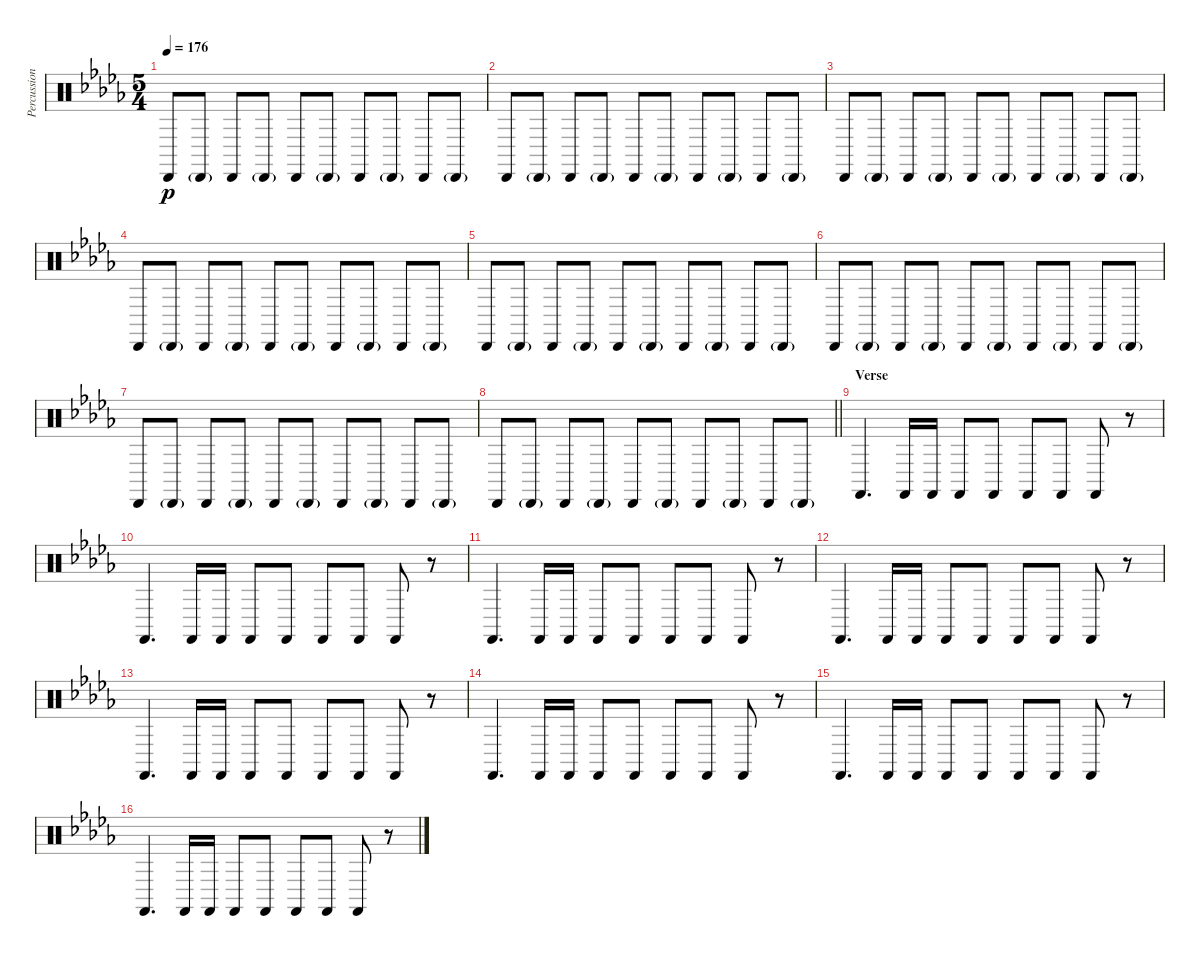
\track ("Percussion" "Percussion") {instrument percussion}
\staff {score}
\articulation defaults
\ts (5 4)
\tempo 176
\clef neutral
\ks db "Cabasa (hit)".8{dy p} "Cabasa (hit)"{g}.8 "Cabasa (hit)".8 "Cabasa (hit)"{g}.8 "Cabasa (hit)".8 "Cabasa (hit)"{g}.8 "Cabasa (hit)".8 "Cabasa (hit)"{g}.8 "Cabasa (hit)".8 "Cabasa (hit)"{g}.8
|
"Cabasa (hit)".8 "Cabasa (hit)"{g}.8 "Cabasa (hit)".8 "Cabasa (hit)"{g}.8 "Cabasa (hit)".8 "Cabasa (hit)"{g}.8 "Cabasa (hit)".8 "Cabasa (hit)"{g}.8 "Cabasa (hit)".8 "Cabasa (hit)"{g}.8 |
"Cabasa (hit)".8 "Cabasa (hit)"{g}.8 "Cabasa (hit)".8 "Cabasa (hit)"{g}.8 "Cabasa (hit)".8 "Cabasa (hit)"{g}.8 "Cabasa (hit)".8 "Cabasa (hit)"{g}.8 "Cabasa (hit)".8 "Cabasa (hit)"{g}.8 |
"Cabasa (hit)".8 "Cabasa (hit)"{g}.8 "Cabasa (hit)".8 "Cabasa (hit)"{g}.8 "Cabasa (hit)".8 "Cabasa (hit)"{g}.8 "Cabasa (hit)".8 "Cabasa (hit)"{g}.8 "Cabasa (hit)".8 "Cabasa (hit)"{g}.8 |
"Cabasa (hit)".8 "Cabasa (hit)"{g}.8 "Cabasa (hit)".8 "Cabasa (hit)"{g}.8 "Cabasa (hit)".8 "Cabasa (hit)"{g}.8 "Cabasa (hit)".8 "Cabasa (hit)"{g}.8 "Cabasa (hit)".8 "Cabasa (hit)"{g}.8 |
"Cabasa (hit)".8 "Cabasa (hit)"{g}.8 "Cabasa (hit)".8 "Cabasa (hit)"{g}.8 "Cabasa (hit)".8 "Cabasa (hit)"{g}.8 "Cabasa (hit)".8 "Cabasa (hit)"{g}.8 "Cabasa (hit)".8 "Cabasa (hit)"{g}.8 |
"Cabasa (hit)".8 "Cabasa (hit)"{g}.8 "Cabasa (hit)".8 "Cabasa (hit)"{g}.8 "Cabasa (hit)".8 "Cabasa (hit)"{g}.8 "Cabasa (hit)".8 "Cabasa (hit)"{g}.8 "Cabasa (hit)".8 "Cabasa (hit)"{g}.8 |
\barLineRight lightlight "Cabasa (hit)".8 "Cabasa (hit)"{g}.8 "Cabasa (hit)".8 "Cabasa (hit)"{g}.8 "Cabasa (hit)".8 "Cabasa (hit)"{g}.8 "Cabasa (hit)".8 "Cabasa (hit)"{g}.8 "Cabasa (hit)".8 "Cabasa (hit)"{g}.8
|
\section ("" "Verse")
"Castanets (hit)".4{d} "Castanets (hit)".16 "Castanets (hit)".16 "Castanets (hit)".8 "Castanets (hit)".8 "Castanets (hit)".8 "Castanets (hit)".8 "Castanets (hit)".8 r.8 |
"Castanets (hit)".4{d} "Castanets (hit)".16 "Castanets (hit)".16 "Castanets (hit)".8 "Castanets (hit)".8 "Castanets (hit)".8 "Castanets (hit)".8 "Castanets (hit)".8 r.8 |
"Castanets (hit)".4{d} "Castanets (hit)".16 "Castanets (hit)".16 "Castanets (hit)".8 "Castanets (hit)".8 "Castanets (hit)".8 "Castanets (hit)".8 "Castanets (hit)".8 r.8 |
"Castanets (hit)".4{d} "Castanets (hit)".16 "Castanets (hit)".16 "Castanets (hit)".8 "Castanets (hit)".8 "Castanets (hit)".8 "Castanets (hit)".8 "Castanets (hit)".8 r.8 |
"Castanets (hit)".4{d} "Castanets (hit)".16 "Castanets (hit)".16 "Castanets (hit)".8 "Castanets (hit)".8 "Castanets (hit)".8 "Castanets (hit)".8 "Castanets (hit)".8 r.8 |
"Castanets (hit)".4{d} "Castanets (hit)".16 "Castanets (hit)".16 "Castanets (hit)".8 "Castanets (hit)".8 "Castanets (hit)".8 "Castanets (hit)".8 "Castanets (hit)".8 r.8 |
"Castanets (hit)".4{d} "Castanets (hit)".16 "Castanets (hit)".16 "Castanets (hit)".8 "Castanets (hit)".8 "Castanets (hit)".8 "Castanets (hit)".8 "Castanets (hit)".8 r.8 |
"Castanets (hit)".4{d} "Castanets (hit)".16 "Castanets (hit)".16 "Castanets (hit)".8 "Castanets (hit)".8 "Castanets (hit)".8 "Castanets (hit)".8 "Castanets (hit)".8 r.8
